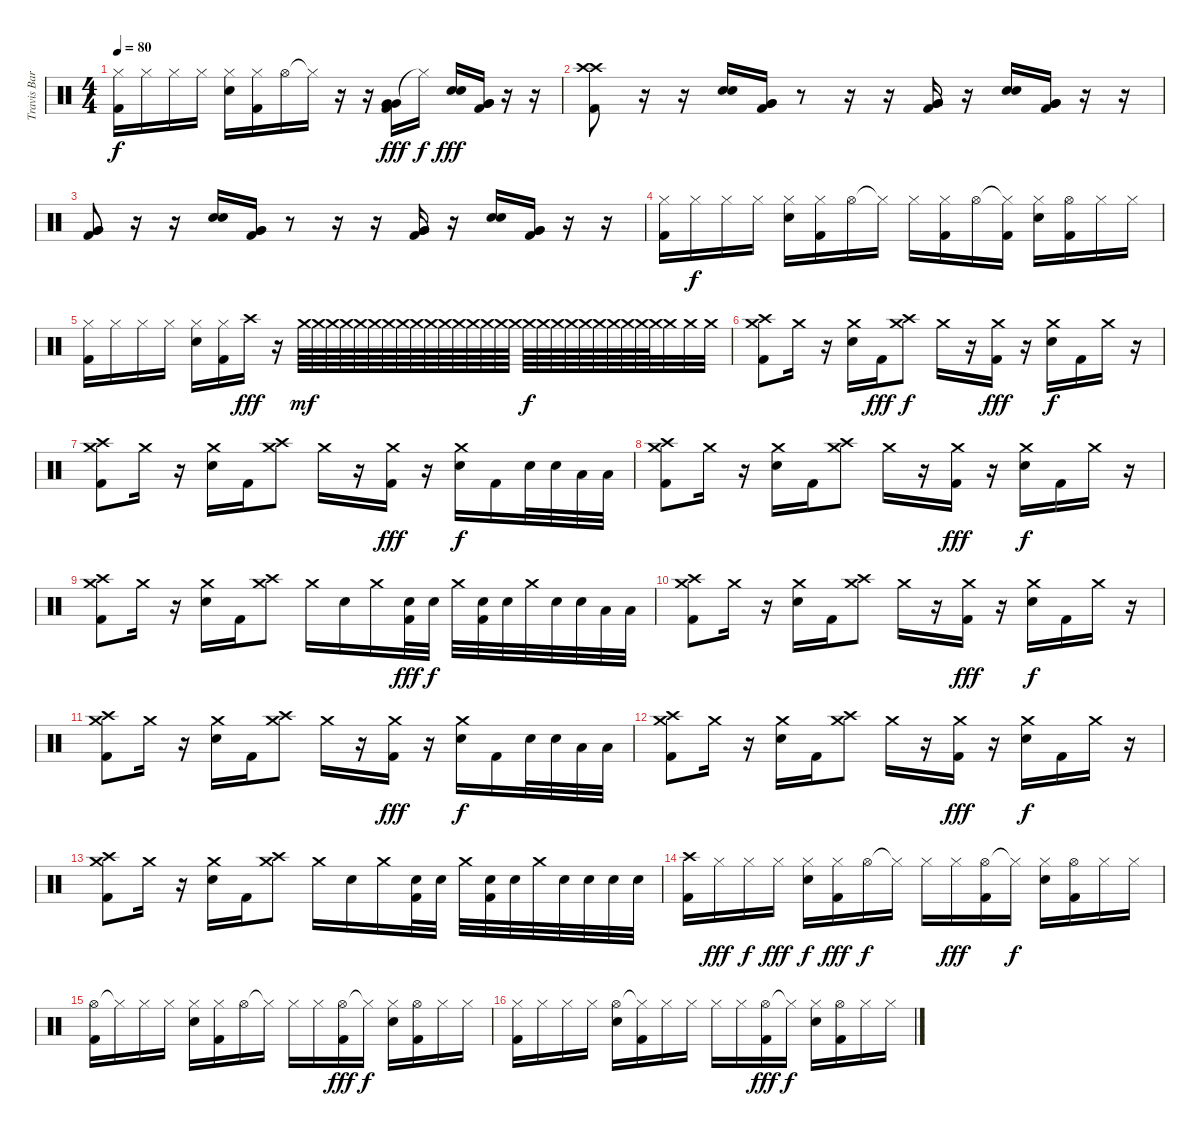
\track ("Travis Barker" "Travis Bar") {instrument percussion}
\staff {score}
\articulation defaults
\ts (4 4)
\tempo 80
\clef neutral
\ks c
("Hi-Hat (closed)" "Kick (hit) 2").16{dy f} "Hi-Hat (closed)".16 "Hi-Hat (closed)".16 "Hi-Hat (closed)".16 ("Hi-Hat (closed)" "Electric Snare (hit)").16 ("Hi-Hat (closed)" "Kick (hit) 2").16 "Hi-Hat (open)".16 "Hi-Hat (closed)"{t}.16 r.16 r.16 ("Very Low Tom (hit)" "Very Low Tom (hit)" "Kick (hit) 2").16{dy fff} "Hi-Hat (closed)"{t}.16{dy f} ("Electric Snare (hit)" "Electric Snare (hit)").16{dy fff} ("Very Low Tom (hit)" "Very Low Tom (hit)" "Kick (hit) 2").16 r.16 r.16 |
("Crash high (hit)" "Crash high (hit)" "Kick (hit) 2").8 r.16 r.16 ("Electric Snare (hit)" "Electric Snare (hit)").16 ("Very Low Tom (hit)" "Very Low Tom (hit)" "Kick (hit) 2").16 r.8 r.16 r.16 ("Very Low Tom (hit)" "Very Low Tom (hit)" "Kick (hit) 2").16 r.16 ("Electric Snare (hit)" "Electric Snare (hit)").16 ("Very Low Tom (hit)" "Very Low Tom (hit)" "Kick (hit) 2").16 r.16 r.16 |
("Very Low Tom (hit)" "Very Low Tom (hit)" "Kick (hit) 2").8 r.16 r.16 ("Electric Snare (hit)" "Electric Snare (hit)").16 ("Very Low Tom (hit)" "Very Low Tom (hit)" "Kick (hit) 2").16 r.8 r.16 r.16 ("Very Low Tom (hit)" "Very Low Tom (hit)" "Kick (hit) 2").16 r.16 ("Electric Snare (hit)" "Electric Snare (hit)").16 ("Very Low Tom (hit)" "Very Low Tom (hit)" "Kick (hit) 2").16 r.16 r.16 |
("Hi-Hat (closed)" "Kick (hit) 2").16 "Hi-Hat (closed)".16{dy f} "Hi-Hat (closed)".16 "Hi-Hat (closed)".16 ("Hi-Hat (closed)" "Electric Snare (hit)").16 ("Hi-Hat (closed)" "Kick (hit) 2").16 "Hi-Hat (open)".16 "Hi-Hat (closed)"{t}.16 "Hi-Hat (closed)".16 ("Hi-Hat (closed)" "Kick (hit) 2").16 "Hi-Hat (open)".16 ("Hi-Hat (closed)"{t} "Kick (hit) 2").16 ("Hi-Hat (closed)" "Electric Snare (hit)").16 ("Hi-Hat (open)" "Kick (hit) 2").16 "Hi-Hat (closed)".16 "Hi-Hat (closed)".16 |
("Hi-Hat (closed)" "Kick (hit) 2").16 "Hi-Hat (closed)".16 "Hi-Hat (closed)".16 "Hi-Hat (closed)".16 ("Hi-Hat (closed)" "Electric Snare (hit)").16 ("Hi-Hat (closed)" "Kick (hit) 2").16 "Crash high (hit)".16{dy fff} r.16 "Crash medium (hit)".64{dy mf} "Crash medium (hit)".64 "Crash medium (hit)".64 "Crash medium (hit)".64 "Crash medium (hit)".64 "Crash medium (hit)".64 "Crash medium (hit)".64 "Crash medium (hit)".64 "Crash medium (hit)".64 "Crash medium (hit)".64 "Crash medium (hit)".64 "Crash medium (hit)".64 "Crash medium (hit)".64 "Crash medium (hit)".64 "Crash medium (hit)".64 "Crash medium (hit)".64 "Crash medium (hit)".64{dy f} "Crash medium (hit)".64 "Crash medium (hit)".64 "Crash medium (hit)".64 "Crash medium (hit)".64 "Crash medium (hit)".64 "Crash medium (hit)".64 "Crash medium (hit)".64 "Crash medium (hit)".64 "Crash medium (hit)".64 "Crash medium (hit)".32 "Crash medium (hit)".32 "Crash medium (hit)".32 |
("Crash high (hit)" "Crash medium (hit)" "Kick (hit) 2").8 "Crash medium (hit)".16 r.16 ("Crash medium (hit)" "Electric Snare (hit)").16 "Kick (hit) 2".16{dy fff} ("Crash high (hit)" "Crash medium (hit)").8{dy f} "Crash medium (hit)".16 r.16 ("Crash medium (hit)" "Kick (hit) 2").16{dy fff} r.16 ("Crash medium (hit)" "Electric Snare (hit)").16{dy f} "Kick (hit) 2".16 "Crash medium (hit)".16 r.16 |
("Crash high (hit)" "Crash medium (hit)" "Kick (hit) 2").8 "Crash medium (hit)".16 r.16 ("Crash medium (hit)" "Electric Snare (hit)").16 "Kick (hit) 2".16 ("Crash high (hit)" "Crash medium (hit)").8 "Crash medium (hit)".16 r.16 ("Crash medium (hit)" "Kick (hit) 2").16{dy fff} r.16 ("Crash medium (hit)" "Electric Snare (hit)").16{dy f} "Kick (hit) 2".16 "Electric Snare (hit)".32 "Electric Snare (hit)".32 "Low Tom (hit)".32 "Low Tom (hit)".32 |
("Crash high (hit)" "Crash medium (hit)" "Kick (hit) 2").8 "Crash medium (hit)".16 r.16 ("Crash medium (hit)" "Electric Snare (hit)").16 "Kick (hit) 2".16 ("Crash high (hit)" "Crash medium (hit)").8 "Crash medium (hit)".16 r.16 ("Crash medium (hit)" "Kick (hit) 2").16{dy fff} r.16 ("Crash medium (hit)" "Electric Snare (hit)").16{dy f} "Kick (hit) 2".16 "Crash medium (hit)".16 r.16 |
("Crash high (hit)" "Crash medium (hit)" "Kick (hit) 2").8 "Crash medium (hit)".16 r.16 ("Crash medium (hit)" "Electric Snare (hit)").16 "Kick (hit) 2".16 ("Crash high (hit)" "Crash medium (hit)").8 "Crash medium (hit)".16 "Electric Snare (hit)".16 "Crash medium (hit)".16 ("Electric Snare (hit)" "Kick (hit) 2").32{dy fff} "Electric Snare (hit)".32{dy f} "Crash medium (hit)".32 ("Electric Snare (hit)" "Kick (hit) 2").32 "Electric Snare (hit)".32 "Crash medium (hit)".32 "Electric Snare (hit)".32 "Electric Snare (hit)".32 "Low Tom (hit)".32 "Low Tom (hit)".32 |
("Crash high (hit)" "Crash medium (hit)" "Kick (hit) 2").8 "Crash medium (hit)".16 r.16 ("Crash medium (hit)" "Electric Snare (hit)").16 "Kick (hit) 2".16 ("Crash high (hit)" "Crash medium (hit)").8 "Crash medium (hit)".16 r.16 ("Crash medium (hit)" "Kick (hit) 2").16{dy fff} r.16 ("Crash medium (hit)" "Electric Snare (hit)").16{dy f} "Kick (hit) 2".16 "Crash medium (hit)".16 r.16 |
("Crash high (hit)" "Crash medium (hit)" "Kick (hit) 2").8 "Crash medium (hit)".16 r.16 ("Crash medium (hit)" "Electric Snare (hit)").16 "Kick (hit) 2".16 ("Crash high (hit)" "Crash medium (hit)").8 "Crash medium (hit)".16 r.16 ("Crash medium (hit)" "Kick (hit) 2").16{dy fff} r.16 ("Crash medium (hit)" "Electric Snare (hit)").16{dy f} "Kick (hit) 2".16 "Electric Snare (hit)".32 "Electric Snare (hit)".32 "Low Tom (hit)".32 "Low Tom (hit)".32 |
("Crash high (hit)" "Crash medium (hit)" "Kick (hit) 2").8 "Crash medium (hit)".16 r.16 ("Crash medium (hit)" "Electric Snare (hit)").16 "Kick (hit) 2".16 ("Crash high (hit)" "Crash medium (hit)").8 "Crash medium (hit)".16 r.16 ("Crash medium (hit)" "Kick (hit) 2").16{dy fff} r.16 ("Crash medium (hit)" "Electric Snare (hit)").16{dy f} "Kick (hit) 2".16 "Crash medium (hit)".16 r.16 |
("Crash high (hit)" "Crash medium (hit)" "Kick (hit) 2").8 "Crash medium (hit)".16 r.16 ("Crash medium (hit)" "Electric Snare (hit)").16 "Kick (hit) 2".16 ("Crash high (hit)" "Crash medium (hit)").8 "Crash medium (hit)".16 "Electric Snare (hit)".16 "Crash medium (hit)".16 ("Electric Snare (hit)" "Kick (hit) 2").32 "Electric Snare (hit)".32 "Crash medium (hit)".32 ("Electric Snare (hit)" "Kick (hit) 2").32 "Electric Snare (hit)".32 "Crash medium (hit)".32 "Electric Snare (hit)".32 "Electric Snare (hit)".32 "Electric Snare (hit)".32 "Electric Snare (hit)".32 |
("Crash high (hit)" "Kick (hit) 2").16 "Hi-Hat (closed)".16{dy fff} "Hi-Hat (closed)".16{dy f} "Hi-Hat (closed)".16{dy fff} ("Hi-Hat (closed)" "Electric Snare (hit)").16{dy f} ("Hi-Hat (closed)" "Kick (hit) 2").16{dy fff} "Hi-Hat (open)".16{dy f} "Hi-Hat (closed)"{t}.16 "Hi-Hat (closed)".16 "Hi-Hat (closed)".16{dy fff} ("Hi-Hat (open)" "Kick (hit) 2").16 "Hi-Hat (closed)"{t}.16{dy f} ("Hi-Hat (closed)" "Electric Snare (hit)").16 ("Hi-Hat (open)" "Kick (hit) 2").16 "Hi-Hat (closed)".16 "Hi-Hat (closed)".16 |
("Hi-Hat (open)" "Kick (hit) 2").16 "Hi-Hat (closed)"{t}.16 "Hi-Hat (closed)".16 "Hi-Hat (closed)".16 ("Hi-Hat (closed)" "Electric Snare (hit)").16 ("Hi-Hat (closed)" "Kick (hit) 2").16 "Hi-Hat (open)".16 "Hi-Hat (closed)"{t}.16 "Hi-Hat (closed)".16 "Hi-Hat (closed)".16 ("Hi-Hat (open)" "Kick (hit) 2").16{dy fff} "Hi-Hat (closed)"{t}.16{dy f} ("Hi-Hat (closed)" "Electric Snare (hit)").16 ("Hi-Hat (open)" "Kick (hit) 2").16 "Hi-Hat (closed)".16 "Hi-Hat (closed)".16 |
("Hi-Hat (closed)" "Kick (hit) 2").16 "Hi-Hat (closed)".16 "Hi-Hat (closed)".16 "Hi-Hat (closed)".16 ("Hi-Hat (open)" "Electric Snare (hit)").16 ("Hi-Hat (closed)"{t} "Kick (hit) 2").16 "Hi-Hat (closed)".16 "Hi-Hat (closed)".16 "Hi-Hat (closed)".16 "Hi-Hat (closed)".16 ("Hi-Hat (open)" "Kick (hit) 2").16{dy fff} "Hi-Hat (closed)"{t}.16{dy f} ("Hi-Hat (closed)" "Electric Snare (hit)").16 ("Hi-Hat (open)" "Kick (hit) 2").16 "Hi-Hat (closed)".16 "Hi-Hat (closed)".16
